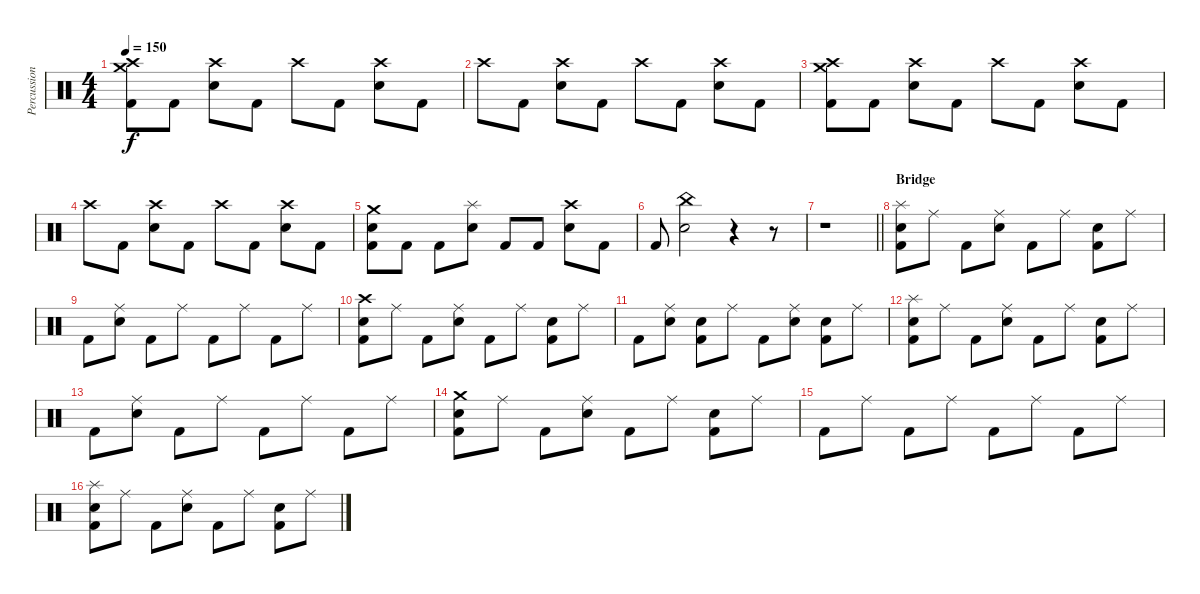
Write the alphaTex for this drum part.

\track ("Percussion" "Percussion") {instrument percussion}
\staff {score}
\articulation defaults
\ts (4 4)
\tempo 150
\clef neutral
\ks c
("Crash high (hit)" "Crash medium (hit)" "Kick (hit) 2").8{dy f} "Kick (hit) 2".8 ("Crash high (hit)" "Snare (hit) 2").8 "Kick (hit) 2".8 "Crash high (hit)".8 "Kick (hit) 2".8 ("Crash high (hit)" "Snare (hit) 2").8 "Kick (hit) 2".8 |
"Crash high (hit)".8 "Kick (hit) 2".8 ("Crash high (hit)" "Snare (hit) 2").8 "Kick (hit) 2".8 "Crash high (hit)".8 "Kick (hit) 2".8 ("Crash high (hit)" "Snare (hit) 2").8 "Kick (hit) 2".8 |
("Crash high (hit)" "Crash medium (hit)" "Kick (hit) 2").8 "Kick (hit) 2".8 ("Crash high (hit)" "Snare (hit) 2").8 "Kick (hit) 2".8 "Crash high (hit)".8 "Kick (hit) 2".8 ("Crash high (hit)" "Snare (hit) 2").8 "Kick (hit) 2".8 |
"Crash high (hit)".8 "Kick (hit) 2".8 ("Crash high (hit)" "Snare (hit) 2").8 "Kick (hit) 2".8 "Crash high (hit)".8 "Kick (hit) 2".8 ("Crash high (hit)" "Snare (hit) 2").8 "Kick (hit) 2".8 |
("Crash medium (hit)" "Snare (hit) 2" "Kick (hit) 2").8 "Kick (hit) 2".8 "Kick (hit) 2".8 ("Splash (hit)" "Snare (hit) 2").8 "Kick (hit) 2".8 "Kick (hit) 2".8 ("Crash high (hit)" "Snare (hit) 2").8 "Kick (hit) 2".8 |
"Kick (hit) 2".8 ("China (hit)" "Snare (hit) 2").2 r.4 r.8 |
\barLineRight lightlight
r.1 |
\section ("" "Bridge")
("Splash (hit)" "Snare (hit) 2" "Kick (hit) 2").8 "Ride (middle)".8 "Kick (hit) 2".8 ("Ride (middle)" "Snare (hit) 2").8 "Kick (hit) 2".8 "Ride (middle)".8 ("Snare (hit) 2" "Kick (hit) 2").8 "Ride (middle)".8 |
"Kick (hit) 2".8 ("Ride (middle)" "Snare (hit) 2").8 "Kick (hit) 2".8 "Ride (middle)".8 "Kick (hit) 2".8 "Ride (middle)".8 "Kick (hit) 2".8 "Ride (middle)".8 |
("Crash high (hit)" "Snare (hit) 2" "Kick (hit) 2").8 "Ride (middle)".8 "Kick (hit) 2".8 ("Ride (middle)" "Snare (hit) 2").8 "Kick (hit) 2".8 "Ride (middle)".8 ("Snare (hit) 2" "Kick (hit) 2").8 "Ride (middle)".8 |
"Kick (hit) 2".8 ("Ride (middle)" "Snare (hit) 2").8 ("Snare (hit) 2" "Kick (hit) 2").8 "Ride (middle)".8 "Kick (hit) 2".8 ("Ride (middle)" "Snare (hit) 2").8 ("Snare (hit) 2" "Kick (hit) 2").8 "Ride (middle)".8 |
("Splash (hit)" "Snare (hit) 2" "Kick (hit) 2").8 "Ride (middle)".8 "Kick (hit) 2".8 ("Ride (middle)" "Snare (hit) 2").8 "Kick (hit) 2".8 "Ride (middle)".8 ("Snare (hit) 2" "Kick (hit) 2").8 "Ride (middle)".8 |
"Kick (hit) 2".8 ("Ride (middle)" "Snare (hit) 2").8 "Kick (hit) 2".8 "Ride (middle)".8 "Kick (hit) 2".8 "Ride (middle)".8 "Kick (hit) 2".8 "Ride (middle)".8 |
("Crash medium (hit)" "Snare (hit) 2" "Kick (hit) 2").8 "Ride (middle)".8 "Kick (hit) 2".8 ("Ride (middle)" "Snare (hit) 2").8 "Kick (hit) 2".8 "Ride (middle)".8 ("Snare (hit) 2" "Kick (hit) 2").8 "Ride (middle)".8 |
"Kick (hit) 2".8 "Ride (middle)".8 "Kick (hit) 2".8 "Ride (middle)".8 "Kick (hit) 2".8 "Ride (middle)".8 "Kick (hit) 2".8 "Ride (middle)".8 |
("Splash (hit)" "Snare (hit) 2" "Kick (hit) 2").8 "Ride (middle)".8 "Kick (hit) 2".8 ("Ride (middle)" "Snare (hit) 2").8 "Kick (hit) 2".8 "Ride (middle)".8 ("Snare (hit) 2" "Kick (hit) 2").8 "Ride (middle)".8
